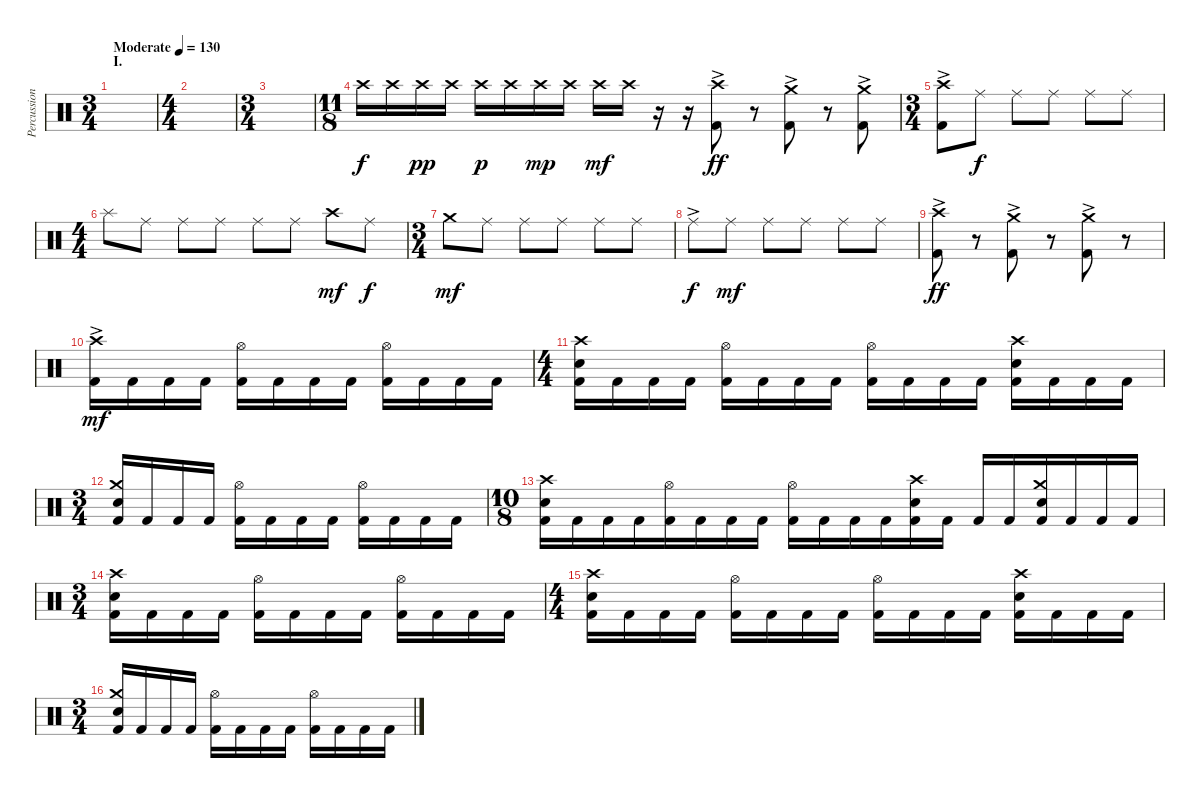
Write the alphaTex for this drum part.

\track ("Percussion" "Percussion") {instrument percussion}
\staff {score}
\articulation defaults
\ts (3 4)
\section ("" "I.")
\tempo (130 "Moderate")
\clef neutral
\ks c
|
\ts (4 4)
|
\ts (3 4)
|
\ts (11 8)
"Crash high (hit)".16 "Crash high (hit)".16 "Crash high (hit)".16{dy pp} "Crash high (hit)".16 "Crash high (hit)".16{dy p} "Crash high (hit)".16 "Crash high (hit)".16{dy mp} "Crash high (hit)".16 "Crash high (hit)".16{dy mf} "Crash high (hit)".16 r.16 r.16 ("Crash high (hit)" "Kick (hit) 2"{ac}).8{dy ff} r.8{volume 0} ("Crash medium (hit)" "Kick (hit) 2"{ac}).8{volume 12} r.8{volume 0} ("Crash medium (hit)" "Kick (hit) 2"{ac}).8{volume 12} |
\ts (3 4)
("Crash high (hit)" "Kick (hit) 2"{ac}).8 "Ride (middle)".8{dy f} "Ride (middle)".8 "Ride (middle)".8 "Ride (middle)".8 "Ride (middle)".8 |
\ts (4 4)
"Splash (hit)".8 "Ride (middle)".8 "Ride (middle)".8 "Ride (middle)".8 "Ride (middle)".8 "Ride (middle)".8 "Crash high (hit)".8{dy mf} "Ride (middle)".8{dy f} |
\ts (3 4)
"Crash medium (hit)".8{dy mf} "Ride (middle)".8 "Ride (middle)".8 "Ride (middle)".8 "Ride (middle)".8 "Ride (middle)".8 |
"Ride (middle)"{ac}.8{dy f} "Ride (middle)".8{dy mf} "Ride (middle)".8 "Ride (middle)".8 "Ride (middle)".8 "Ride (middle)".8 |
("Crash high (hit)" "Kick (hit) 2"{ac}).8{dy ff} r.8{volume 0} ("Crash medium (hit)" "Kick (hit) 2"{ac}).8{volume 12} r.8{volume 0} ("Crash medium (hit)" "Kick (hit) 2"{ac}).8{volume 12} r.8{volume 0} |
("Crash high (hit)" "Kick (hit) 2"{ac}).16{dy mf volume 12} "Kick (hit) 2".16 "Kick (hit) 2".16 "Kick (hit) 2".16 ("Hi-Hat (open)" "Kick (hit) 2").16 "Kick (hit) 2".16 "Kick (hit) 2".16 "Kick (hit) 2".16 ("Hi-Hat (open)" "Kick (hit) 2").16 "Kick (hit) 2".16 "Kick (hit) 2".16 "Kick (hit) 2".16 |
\ts (4 4)
("Crash high (hit)" "Electric Snare (hit)" "Kick (hit) 2").16 "Kick (hit) 2".16 "Kick (hit) 2".16 "Kick (hit) 2".16 ("Hi-Hat (open)" "Kick (hit) 2").16 "Kick (hit) 2".16 "Kick (hit) 2".16 "Kick (hit) 2".16 ("Hi-Hat (open)" "Kick (hit) 2").16 "Kick (hit) 2".16 "Kick (hit) 2".16 "Kick (hit) 2".16 ("Crash high (hit)" "Electric Snare (hit)" "Kick (hit) 2").16 "Kick (hit) 2".16 "Kick (hit) 2".16 "Kick (hit) 2".16 |
\ts (3 4)
("Crash medium (hit)" "Electric Snare (hit)" "Kick (hit) 2").16 "Kick (hit) 2".16 "Kick (hit) 2".16 "Kick (hit) 2".16 ("Hi-Hat (open)" "Kick (hit) 2").16 "Kick (hit) 2".16 "Kick (hit) 2".16 "Kick (hit) 2".16 ("Hi-Hat (open)" "Kick (hit) 2").16 "Kick (hit) 2".16 "Kick (hit) 2".16 "Kick (hit) 2".16 |
\ts (10 8)
("Crash high (hit)" "Electric Snare (hit)" "Kick (hit) 2").16 "Kick (hit) 2".16 "Kick (hit) 2".16 "Kick (hit) 2".16 ("Hi-Hat (open)" "Kick (hit) 2").16 "Kick (hit) 2".16 "Kick (hit) 2".16 "Kick (hit) 2".16 ("Hi-Hat (open)" "Kick (hit) 2").16 "Kick (hit) 2".16 "Kick (hit) 2".16 "Kick (hit) 2".16 ("Crash high (hit)" "Electric Snare (hit)" "Kick (hit) 2").16 "Kick (hit) 2".16 "Kick (hit) 2".16 "Kick (hit) 2".16 ("Crash medium (hit)" "Electric Snare (hit)" "Kick (hit) 2").16 "Kick (hit) 2".16 "Kick (hit) 2".16 "Kick (hit) 2".16 |
\ts (3 4)
("Crash high (hit)" "Electric Snare (hit)" "Kick (hit) 2").16 "Kick (hit) 2".16 "Kick (hit) 2".16 "Kick (hit) 2".16 ("Hi-Hat (open)" "Kick (hit) 2").16 "Kick (hit) 2".16 "Kick (hit) 2".16 "Kick (hit) 2".16 ("Hi-Hat (open)" "Kick (hit) 2").16 "Kick (hit) 2".16 "Kick (hit) 2".16 "Kick (hit) 2".16 |
\ts (4 4)
("Crash high (hit)" "Electric Snare (hit)" "Kick (hit) 2").16 "Kick (hit) 2".16 "Kick (hit) 2".16 "Kick (hit) 2".16 ("Hi-Hat (open)" "Kick (hit) 2").16 "Kick (hit) 2".16 "Kick (hit) 2".16 "Kick (hit) 2".16 ("Hi-Hat (open)" "Kick (hit) 2").16 "Kick (hit) 2".16 "Kick (hit) 2".16 "Kick (hit) 2".16 ("Crash high (hit)" "Electric Snare (hit)" "Kick (hit) 2").16 "Kick (hit) 2".16 "Kick (hit) 2".16 "Kick (hit) 2".16 |
\ts (3 4)
("Crash medium (hit)" "Electric Snare (hit)" "Kick (hit) 2").16 "Kick (hit) 2".16 "Kick (hit) 2".16 "Kick (hit) 2".16 ("Hi-Hat (open)" "Kick (hit) 2").16 "Kick (hit) 2".16 "Kick (hit) 2".16 "Kick (hit) 2".16 ("Hi-Hat (open)" "Kick (hit) 2").16 "Kick (hit) 2".16 "Kick (hit) 2".16 "Kick (hit) 2".16
